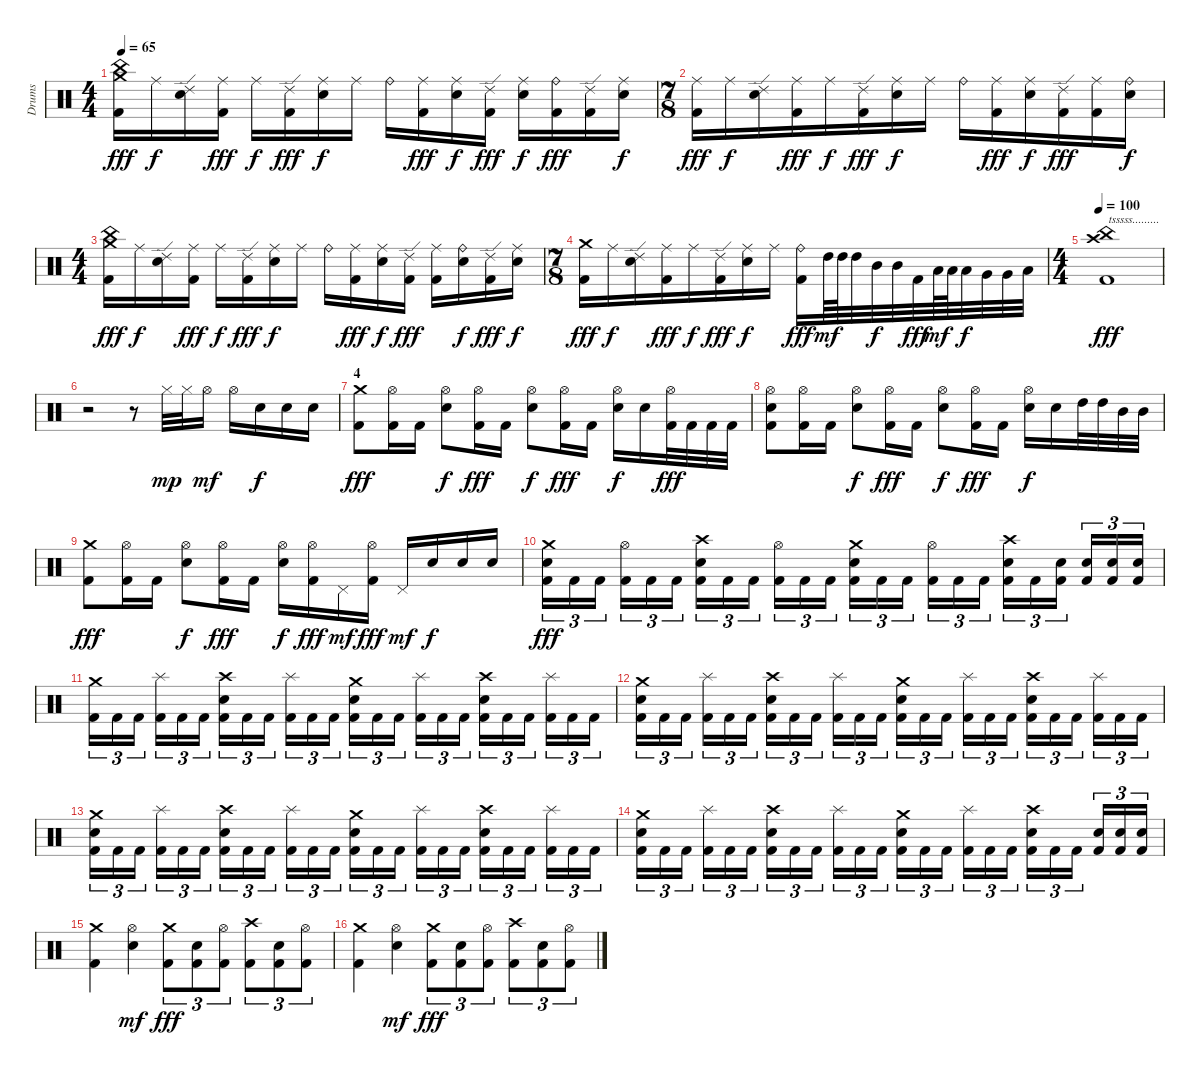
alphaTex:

\track ("Drums" "Drums") {instrument percussion}
\staff {score}
\articulation defaults
\ts (4 4)
\tempo 65
\clef neutral
\ks c
("China (hit)" "Crash medium (hit)" "Kick (hit) 2").16{dy fff} "Ride (middle)".16{dy f} ("Ride (edge) 2" "Electric Snare (hit)").16 ("Ride (middle)" "Kick (hit) 2").16{dy fff} "Ride (middle)".16{dy f} ("Ride (edge) 2" "Kick (hit) 2").16{dy fff} ("Ride (middle)" "Electric Snare (hit)").16{dy f} "Ride (middle)".16 "Ride (bell)".16 ("Ride (middle)" "Kick (hit) 2").16{dy fff} ("Ride (middle)" "Electric Snare (hit)").16{dy f} ("Ride (edge) 2" "Kick (hit) 2").16{dy fff} ("Ride (middle)" "Electric Snare (hit)").16{dy f} ("Ride (bell)" "Kick (hit) 2").16{dy fff} ("Ride (edge) 2" "Kick (hit) 2").16 ("Ride (middle)" "Electric Snare (hit)").16{dy f} |
\ts (7 8)
("Ride (middle)" "Kick (hit) 2").16{dy fff} "Ride (middle)".16{dy f} ("Ride (edge) 2" "Electric Snare (hit)").16 ("Ride (middle)" "Kick (hit) 2").16{dy fff} "Ride (middle)".16{dy f} ("Ride (edge) 2" "Kick (hit) 2").16{dy fff} ("Ride (middle)" "Electric Snare (hit)").16{dy f} "Ride (middle)".16 "Ride (bell)".16 ("Ride (middle)" "Kick (hit) 2").16{dy fff} ("Ride (middle)" "Electric Snare (hit)").16{dy f} ("Ride (edge) 2" "Kick (hit) 2").16{dy fff} ("Ride (middle)" "Kick (hit) 2").16 ("Ride (bell)" "Electric Snare (hit)").16{dy f} |
\ts (4 4)
("China (hit)" "Crash medium (hit)" "Kick (hit) 2").16{dy fff} "Ride (middle)".16{dy f} ("Ride (edge) 2" "Electric Snare (hit)").16 ("Ride (middle)" "Kick (hit) 2").16{dy fff} "Ride (middle)".16{dy f} ("Ride (edge) 2" "Kick (hit) 2").16{dy fff} ("Ride (middle)" "Electric Snare (hit)").16{dy f} "Ride (middle)".16 "Ride (bell)".16 ("Ride (middle)" "Kick (hit) 2").16{dy fff} ("Ride (middle)" "Electric Snare (hit)").16{dy f} ("Ride (edge) 2" "Kick (hit) 2").16{dy fff} ("Ride (middle)" "Kick (hit) 2").16 ("Ride (bell)" "Electric Snare (hit)").16{dy f} ("Ride (edge) 2" "Kick (hit) 2").16{dy fff} ("Ride (middle)" "Electric Snare (hit)").16{dy f} |
\ts (7 8)
("Crash medium (hit)" "Kick (hit) 2").16{dy fff} "Ride (middle)".16{dy f} ("Ride (edge) 2" "Electric Snare (hit)").16 ("Ride (middle)" "Kick (hit) 2").16{dy fff} "Ride (middle)".16{dy f} ("Ride (edge) 2" "Kick (hit) 2").16{dy fff} ("Ride (middle)" "Electric Snare (hit)").16{dy f} "Ride (middle)".16 ("Ride (bell)" "Kick (hit) 2").16{dy fff} "High Tom (hit)".64{dy mf} "High Tom (hit)".64 "High Tom (hit)".32 "Mid Tom (hit)".32{dy f} "Mid Tom (hit)".32 "Kick (hit) 2".32{dy fff} "Low Tom (hit)".64{dy mf} "Low Tom (hit)".64 "Low Tom (hit)".32{dy f} "Very Low Tom (hit)".32 "Very Low Tom (hit)".32 "Low Floor Tom (hit)".32 |
\ts (4 4)
\tempo 100
("Crash high (hit)" "China (hit)" "Kick (hit) 2").1{txt "tsssss........." dy fff} |
r.2 r.8 "Hi-Hat (closed)".32{dy mp} "Hi-Hat (closed)".32 "Hi-Hat (open)".16{dy mf} "Hi-Hat (open)".16 "Electric Snare (hit)".16{dy f} "Electric Snare (hit)".16 "Electric Snare (hit)".16 |
\section ("" "4")
("Crash medium (hit)" "Kick (hit) 2").8{dy fff} ("Hi-Hat (open)" "Kick (hit) 2").16 "Kick (hit) 2".16 ("Hi-Hat (open)" "Electric Snare (hit)").8{dy f} ("Hi-Hat (open)" "Kick (hit) 2").16{dy fff} "Kick (hit) 2".16 ("Hi-Hat (open)" "Electric Snare (hit)").8{dy f} ("Hi-Hat (open)" "Kick (hit) 2").16{dy fff} "Kick (hit) 2".16 ("Hi-Hat (open)" "Electric Snare (hit)").16{dy f} "Electric Snare (hit)".16 ("Hi-Hat (open)" "Kick (hit) 2").32{dy fff} "Kick (hit) 2".32 "Kick (hit) 2".32 "Kick (hit) 2".32 |
("Hi-Hat (open)" "Electric Snare (hit)" "Kick (hit) 2").8 ("Hi-Hat (open)" "Kick (hit) 2").16 "Kick (hit) 2".16 ("Hi-Hat (open)" "Electric Snare (hit)").8{dy f} ("Hi-Hat (open)" "Kick (hit) 2").16{dy fff} "Kick (hit) 2".16 ("Hi-Hat (open)" "Electric Snare (hit)").8{dy f} ("Hi-Hat (open)" "Kick (hit) 2").16{dy fff} "Kick (hit) 2".16 ("Hi-Hat (open)" "Electric Snare (hit)").16{dy f} "Electric Snare (hit)".16 "High Tom (hit)".32 "High Tom (hit)".32 "Mid Tom (hit)".32 "Mid Tom (hit)".32 |
("Crash medium (hit)" "Kick (hit) 2").8{dy fff} ("Hi-Hat (open)" "Kick (hit) 2").16 "Kick (hit) 2".16 ("Hi-Hat (open)" "Electric Snare (hit)").8{dy f} ("Hi-Hat (open)" "Kick (hit) 2").16{dy fff} "Kick (hit) 2".16 ("Hi-Hat (open)" "Electric Snare (hit)").16{dy f} ("Hi-Hat (open)" "Kick (hit) 2").16{dy fff} "Pedal Hi-Hat (hit)".16{dy mf} ("Hi-Hat (open)" "Kick (hit) 2").16{dy fff} "Pedal Hi-Hat (hit)".16{dy mf} "Electric Snare (hit)".16{dy f} "Electric Snare (hit)".16 "Electric Snare (hit)".16 |
("Crash medium (hit)" "Electric Snare (hit)" "Kick (hit) 2").16{tu (3 2) dy fff} "Kick (hit) 2".16{tu (3 2)} "Kick (hit) 2".16{tu (3 2)} ("Hi-Hat (open)" "Kick (hit) 2").16{tu (3 2)} "Kick (hit) 2".16{tu (3 2)} "Kick (hit) 2".16{tu (3 2)} ("Crash high (hit)" "Electric Snare (hit)" "Kick (hit) 2").16{tu (3 2)} "Kick (hit) 2".16{tu (3 2)} "Kick (hit) 2".16{tu (3 2)} ("Hi-Hat (open)" "Kick (hit) 2").16{tu (3 2)} "Kick (hit) 2".16{tu (3 2)} "Kick (hit) 2".16{tu (3 2)} ("Crash medium (hit)" "Electric Snare (hit)" "Kick (hit) 2").16{tu (3 2)} "Kick (hit) 2".16{tu (3 2)} "Kick (hit) 2".16{tu (3 2)} ("Hi-Hat (open)" "Kick (hit) 2").16{tu (3 2)} "Kick (hit) 2".16{tu (3 2)} "Kick (hit) 2".16{tu (3 2)} ("Crash high (hit)" "Electric Snare (hit)" "Kick (hit) 2").16{tu (3 2)} "Kick (hit) 2".16{tu (3 2)} ("Electric Snare (hit)" "Kick (hit) 2").16{tu (3 2)} ("Electric Snare (hit)" "Kick (hit) 2").16{tu (3 2)} ("Electric Snare (hit)" "Kick (hit) 2").16{tu (3 2)} ("Electric Snare (hit)" "Kick (hit) 2").16{tu (3 2)} |
("Crash medium (hit)" "Kick (hit) 2").16{tu (3 2)} "Kick (hit) 2".16{tu (3 2)} "Kick (hit) 2".16{tu (3 2)} ("Splash (hit)" "Kick (hit) 2").16{tu (3 2)} "Kick (hit) 2".16{tu (3 2)} "Kick (hit) 2".16{tu (3 2)} ("Crash high (hit)" "Electric Snare (hit)" "Kick (hit) 2").16{tu (3 2)} "Kick (hit) 2".16{tu (3 2)} "Kick (hit) 2".16{tu (3 2)} ("Splash (hit)" "Kick (hit) 2").16{tu (3 2)} "Kick (hit) 2".16{tu (3 2)} "Kick (hit) 2".16{tu (3 2)} ("Crash medium (hit)" "Electric Snare (hit)" "Kick (hit) 2").16{tu (3 2)} "Kick (hit) 2".16{tu (3 2)} "Kick (hit) 2".16{tu (3 2)} ("Splash (hit)" "Kick (hit) 2").16{tu (3 2)} "Kick (hit) 2".16{tu (3 2)} "Kick (hit) 2".16{tu (3 2)} ("Crash high (hit)" "Electric Snare (hit)" "Kick (hit) 2").16{tu (3 2)} "Kick (hit) 2".16{tu (3 2)} "Kick (hit) 2".16{tu (3 2)} ("Splash (hit)" "Kick (hit) 2").16{tu (3 2)} "Kick (hit) 2".16{tu (3 2)} "Kick (hit) 2".16{tu (3 2)} |
("Crash medium (hit)" "Electric Snare (hit)" "Kick (hit) 2").16{tu (3 2)} "Kick (hit) 2".16{tu (3 2)} "Kick (hit) 2".16{tu (3 2)} ("Splash (hit)" "Kick (hit) 2").16{tu (3 2)} "Kick (hit) 2".16{tu (3 2)} "Kick (hit) 2".16{tu (3 2)} ("Crash high (hit)" "Electric Snare (hit)" "Kick (hit) 2").16{tu (3 2)} "Kick (hit) 2".16{tu (3 2)} "Kick (hit) 2".16{tu (3 2)} ("Splash (hit)" "Kick (hit) 2").16{tu (3 2)} "Kick (hit) 2".16{tu (3 2)} "Kick (hit) 2".16{tu (3 2)} ("Crash medium (hit)" "Electric Snare (hit)" "Kick (hit) 2").16{tu (3 2)} "Kick (hit) 2".16{tu (3 2)} "Kick (hit) 2".16{tu (3 2)} ("Splash (hit)" "Kick (hit) 2").16{tu (3 2)} "Kick (hit) 2".16{tu (3 2)} "Kick (hit) 2".16{tu (3 2)} ("Crash high (hit)" "Electric Snare (hit)" "Kick (hit) 2").16{tu (3 2)} "Kick (hit) 2".16{tu (3 2)} "Kick (hit) 2".16{tu (3 2)} ("Splash (hit)" "Kick (hit) 2").16{tu (3 2)} "Kick (hit) 2".16{tu (3 2)} "Kick (hit) 2".16{tu (3 2)} |
("Crash medium (hit)" "Electric Snare (hit)" "Kick (hit) 2").16{tu (3 2)} "Kick (hit) 2".16{tu (3 2)} "Kick (hit) 2".16{tu (3 2)} ("Splash (hit)" "Kick (hit) 2").16{tu (3 2)} "Kick (hit) 2".16{tu (3 2)} "Kick (hit) 2".16{tu (3 2)} ("Crash high (hit)" "Electric Snare (hit)" "Kick (hit) 2").16{tu (3 2)} "Kick (hit) 2".16{tu (3 2)} "Kick (hit) 2".16{tu (3 2)} ("Splash (hit)" "Kick (hit) 2").16{tu (3 2)} "Kick (hit) 2".16{tu (3 2)} "Kick (hit) 2".16{tu (3 2)} ("Crash medium (hit)" "Electric Snare (hit)" "Kick (hit) 2").16{tu (3 2)} "Kick (hit) 2".16{tu (3 2)} "Kick (hit) 2".16{tu (3 2)} ("Splash (hit)" "Kick (hit) 2").16{tu (3 2)} "Kick (hit) 2".16{tu (3 2)} "Kick (hit) 2".16{tu (3 2)} ("Crash high (hit)" "Electric Snare (hit)" "Kick (hit) 2").16{tu (3 2)} "Kick (hit) 2".16{tu (3 2)} "Kick (hit) 2".16{tu (3 2)} ("Splash (hit)" "Kick (hit) 2").16{tu (3 2)} "Kick (hit) 2".16{tu (3 2)} "Kick (hit) 2".16{tu (3 2)} |
("Crash medium (hit)" "Electric Snare (hit)" "Kick (hit) 2").16{tu (3 2)} "Kick (hit) 2".16{tu (3 2)} "Kick (hit) 2".16{tu (3 2)} ("Splash (hit)" "Kick (hit) 2").16{tu (3 2)} "Kick (hit) 2".16{tu (3 2)} "Kick (hit) 2".16{tu (3 2)} ("Crash high (hit)" "Electric Snare (hit)" "Kick (hit) 2").16{tu (3 2)} "Kick (hit) 2".16{tu (3 2)} "Kick (hit) 2".16{tu (3 2)} ("Splash (hit)" "Kick (hit) 2").16{tu (3 2)} "Kick (hit) 2".16{tu (3 2)} "Kick (hit) 2".16{tu (3 2)} ("Crash medium (hit)" "Electric Snare (hit)" "Kick (hit) 2").16{tu (3 2)} "Kick (hit) 2".16{tu (3 2)} "Kick (hit) 2".16{tu (3 2)} ("Splash (hit)" "Kick (hit) 2").16{tu (3 2)} "Kick (hit) 2".16{tu (3 2)} "Kick (hit) 2".16{tu (3 2)} ("Crash high (hit)" "Electric Snare (hit)" "Kick (hit) 2").16{tu (3 2)} "Kick (hit) 2".16{tu (3 2)} "Kick (hit) 2".16{tu (3 2)} ("Electric Snare (hit)" "Kick (hit) 2").16{tu (3 2)} ("Electric Snare (hit)" "Kick (hit) 2").16{tu (3 2)} ("Electric Snare (hit)" "Kick (hit) 2").16{tu (3 2)} |
("Crash medium (hit)" "Kick (hit) 2").4 ("Hi-Hat (open)" "Electric Snare (hit)").4{dy mf} ("Crash medium (hit)" "Kick (hit) 2").8{tu (3 2) dy fff} ("Electric Snare (hit)" "Kick (hit) 2").8{tu (3 2)} ("Hi-Hat (open)" "Kick (hit) 2").8{tu (3 2)} ("Crash high (hit)" "Kick (hit) 2").8{tu (3 2)} ("Electric Snare (hit)" "Kick (hit) 2").8{tu (3 2)} ("Hi-Hat (open)" "Kick (hit) 2").8{tu (3 2)} |
("Crash medium (hit)" "Kick (hit) 2").4 ("Hi-Hat (open)" "Electric Snare (hit)").4{dy mf} ("Crash medium (hit)" "Kick (hit) 2").8{tu (3 2) dy fff} ("Electric Snare (hit)" "Kick (hit) 2").8{tu (3 2)} ("Hi-Hat (open)" "Kick (hit) 2").8{tu (3 2)} ("Crash high (hit)" "Kick (hit) 2").8{tu (3 2)} ("Electric Snare (hit)" "Kick (hit) 2").8{tu (3 2)} ("Hi-Hat (open)" "Kick (hit) 2").8{tu (3 2)}
